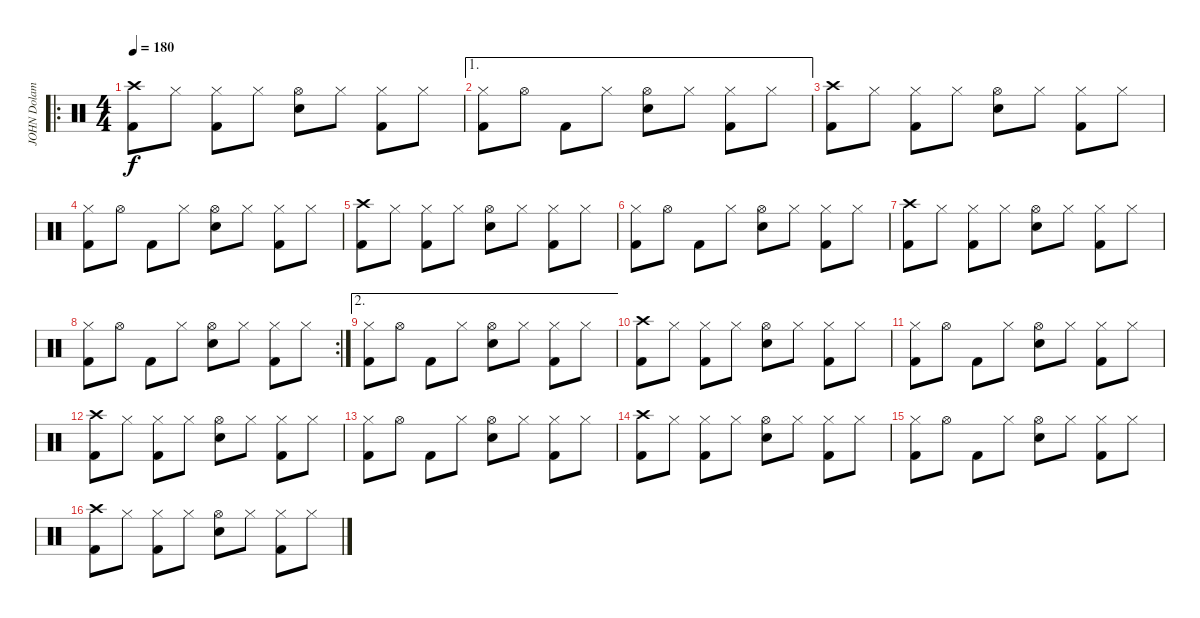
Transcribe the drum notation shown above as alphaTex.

\track ("JOHN Dolamyan" "JOHN Dolam") {instrument percussion}
\staff {score}
\articulation defaults
\ro
\ts (4 4)
\tempo 180
\clef neutral
\ks c
("Crash high (hit)" "Kick (hit) 2").8{dy f} "Hi-Hat (closed)".8 ("Hi-Hat (closed)" "Kick (hit) 2").8 "Hi-Hat (closed)".8 ("Hi-Hat (open)" "Electric Snare (hit)").8 "Hi-Hat (closed)".8 ("Hi-Hat (closed)" "Kick (hit) 2").8 "Hi-Hat (closed)".8 |
\ae 1
("Hi-Hat (closed)" "Kick (hit) 2").8 "Hi-Hat (open)".8 "Kick (hit) 2".8 "Hi-Hat (closed)".8 ("Hi-Hat (open)" "Electric Snare (hit)").8 "Hi-Hat (closed)".8 ("Hi-Hat (closed)" "Kick (hit) 2").8 "Hi-Hat (closed)".8 |
("Crash high (hit)" "Kick (hit) 2").8 "Hi-Hat (closed)".8 ("Hi-Hat (closed)" "Kick (hit) 2").8 "Hi-Hat (closed)".8 ("Hi-Hat (open)" "Electric Snare (hit)").8 "Hi-Hat (closed)".8 ("Hi-Hat (closed)" "Kick (hit) 2").8 "Hi-Hat (closed)".8 |
("Hi-Hat (closed)" "Kick (hit) 2").8 "Hi-Hat (open)".8 "Kick (hit) 2".8 "Hi-Hat (closed)".8 ("Hi-Hat (open)" "Electric Snare (hit)").8 "Hi-Hat (closed)".8 ("Hi-Hat (closed)" "Kick (hit) 2").8 "Hi-Hat (closed)".8 |
("Crash high (hit)" "Kick (hit) 2").8 "Hi-Hat (closed)".8 ("Hi-Hat (closed)" "Kick (hit) 2").8 "Hi-Hat (closed)".8 ("Hi-Hat (open)" "Electric Snare (hit)").8 "Hi-Hat (closed)".8 ("Hi-Hat (closed)" "Kick (hit) 2").8 "Hi-Hat (closed)".8 |
("Hi-Hat (closed)" "Kick (hit) 2").8 "Hi-Hat (open)".8 "Kick (hit) 2".8 "Hi-Hat (closed)".8 ("Hi-Hat (open)" "Electric Snare (hit)").8 "Hi-Hat (closed)".8 ("Hi-Hat (closed)" "Kick (hit) 2").8 "Hi-Hat (closed)".8 |
("Crash high (hit)" "Kick (hit) 2").8 "Hi-Hat (closed)".8 ("Hi-Hat (closed)" "Kick (hit) 2").8 "Hi-Hat (closed)".8 ("Hi-Hat (open)" "Electric Snare (hit)").8 "Hi-Hat (closed)".8 ("Hi-Hat (closed)" "Kick (hit) 2").8 "Hi-Hat (closed)".8 |
\rc 2
("Hi-Hat (closed)" "Kick (hit) 2").8 "Hi-Hat (open)".8 "Kick (hit) 2".8 "Hi-Hat (closed)".8 ("Hi-Hat (open)" "Electric Snare (hit)").8 "Hi-Hat (closed)".8 ("Hi-Hat (closed)" "Kick (hit) 2").8 "Hi-Hat (closed)".8 |
\ae 2
("Hi-Hat (closed)" "Kick (hit) 2").8 "Hi-Hat (open)".8 "Kick (hit) 2".8 "Hi-Hat (closed)".8 ("Hi-Hat (open)" "Electric Snare (hit)").8 "Hi-Hat (closed)".8 ("Hi-Hat (closed)" "Kick (hit) 2").8 "Hi-Hat (closed)".8 |
("Crash high (hit)" "Kick (hit) 2").8 "Hi-Hat (closed)".8 ("Hi-Hat (closed)" "Kick (hit) 2").8 "Hi-Hat (closed)".8 ("Hi-Hat (open)" "Electric Snare (hit)").8 "Hi-Hat (closed)".8 ("Hi-Hat (closed)" "Kick (hit) 2").8 "Hi-Hat (closed)".8 |
("Hi-Hat (closed)" "Kick (hit) 2").8 "Hi-Hat (open)".8 "Kick (hit) 2".8 "Hi-Hat (closed)".8 ("Hi-Hat (open)" "Electric Snare (hit)").8 "Hi-Hat (closed)".8 ("Hi-Hat (closed)" "Kick (hit) 2").8 "Hi-Hat (closed)".8 |
("Crash high (hit)" "Kick (hit) 2").8 "Hi-Hat (closed)".8 ("Hi-Hat (closed)" "Kick (hit) 2").8 "Hi-Hat (closed)".8 ("Hi-Hat (open)" "Electric Snare (hit)").8 "Hi-Hat (closed)".8 ("Hi-Hat (closed)" "Kick (hit) 2").8 "Hi-Hat (closed)".8 |
("Hi-Hat (closed)" "Kick (hit) 2").8 "Hi-Hat (open)".8 "Kick (hit) 2".8 "Hi-Hat (closed)".8 ("Hi-Hat (open)" "Electric Snare (hit)").8 "Hi-Hat (closed)".8 ("Hi-Hat (closed)" "Kick (hit) 2").8 "Hi-Hat (closed)".8 |
("Crash high (hit)" "Kick (hit) 2").8 "Hi-Hat (closed)".8 ("Hi-Hat (closed)" "Kick (hit) 2").8 "Hi-Hat (closed)".8 ("Hi-Hat (open)" "Electric Snare (hit)").8 "Hi-Hat (closed)".8 ("Hi-Hat (closed)" "Kick (hit) 2").8 "Hi-Hat (closed)".8 |
("Hi-Hat (closed)" "Kick (hit) 2").8 "Hi-Hat (open)".8 "Kick (hit) 2".8 "Hi-Hat (closed)".8 ("Hi-Hat (open)" "Electric Snare (hit)").8 "Hi-Hat (closed)".8 ("Hi-Hat (closed)" "Kick (hit) 2").8 "Hi-Hat (closed)".8 |
("Crash high (hit)" "Kick (hit) 2").8 "Hi-Hat (closed)".8 ("Hi-Hat (closed)" "Kick (hit) 2").8 "Hi-Hat (closed)".8 ("Hi-Hat (open)" "Electric Snare (hit)").8 "Hi-Hat (closed)".8 ("Hi-Hat (closed)" "Kick (hit) 2").8 "Hi-Hat (closed)".8
